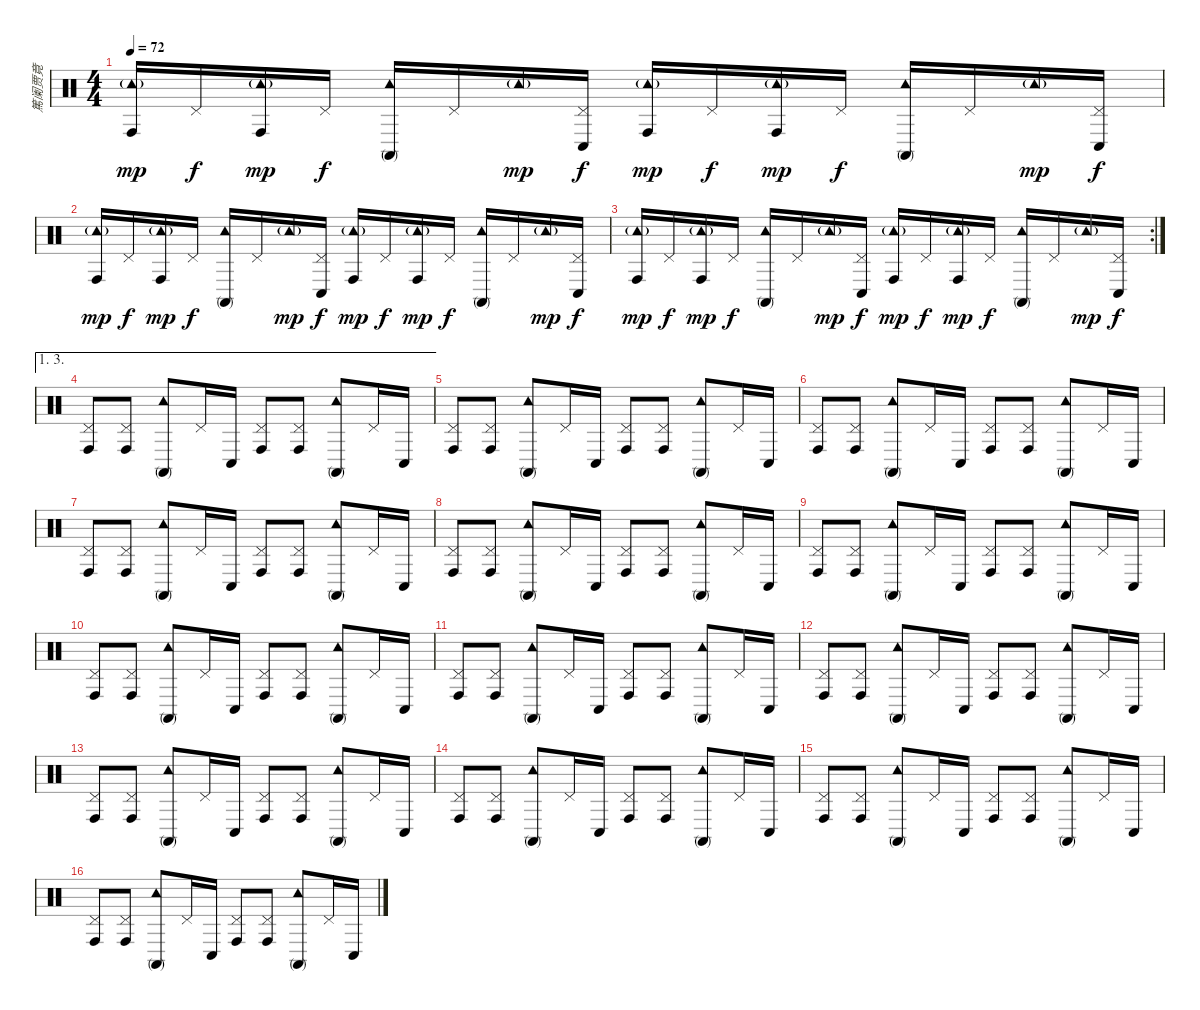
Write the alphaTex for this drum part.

\track ("篤阑贾竟" "篤阑贾竟") {instrument percussion}
\staff {score}
\articulation defaults
\ts (4 4)
\tempo 72
\clef neutral
\ks c
("Tambourine (hit)"{g} "Conga high (hit)").16{dy mp} "Pedal Hi-Hat (hit)".16{dy f} ("Tambourine (hit)"{g} "Conga high (hit)").16{dy mp} "Pedal Hi-Hat (hit)".16{dy f} ("Tambourine (hit)" "Conga high (mute)").16 "Pedal Hi-Hat (hit)".16 "Tambourine (hit)"{g}.16{dy mp} ("Pedal Hi-Hat (hit)" "Conga low (hit)").16{dy f} ("Tambourine (hit)"{g} "Conga high (hit)").16{dy mp} "Pedal Hi-Hat (hit)".16{dy f} ("Tambourine (hit)"{g} "Conga high (hit)").16{dy mp} "Pedal Hi-Hat (hit)".16{dy f} ("Tambourine (hit)" "Conga high (mute)").16 "Pedal Hi-Hat (hit)".16 "Tambourine (hit)"{g}.16{dy mp} ("Pedal Hi-Hat (hit)" "Conga low (hit)").16{dy f} |
("Tambourine (hit)"{g} "Conga high (hit)").16{dy mp} "Pedal Hi-Hat (hit)".16{dy f} ("Tambourine (hit)"{g} "Conga high (hit)").16{dy mp} "Pedal Hi-Hat (hit)".16{dy f} ("Tambourine (hit)" "Conga high (mute)").16 "Pedal Hi-Hat (hit)".16 "Tambourine (hit)"{g}.16{dy mp} ("Pedal Hi-Hat (hit)" "Conga low (hit)").16{dy f} ("Tambourine (hit)"{g} "Conga high (hit)").16{dy mp} "Pedal Hi-Hat (hit)".16{dy f} ("Tambourine (hit)"{g} "Conga high (hit)").16{dy mp} "Pedal Hi-Hat (hit)".16{dy f} ("Tambourine (hit)" "Conga high (mute)").16 "Pedal Hi-Hat (hit)".16 "Tambourine (hit)"{g}.16{dy mp} ("Pedal Hi-Hat (hit)" "Conga low (hit)").16{dy f} |
\rc 2
("Tambourine (hit)"{g} "Conga high (hit)").16{dy mp} "Pedal Hi-Hat (hit)".16{dy f} ("Tambourine (hit)"{g} "Conga high (hit)").16{dy mp} "Pedal Hi-Hat (hit)".16{dy f} ("Tambourine (hit)" "Conga high (mute)").16 "Pedal Hi-Hat (hit)".16 "Tambourine (hit)"{g}.16{dy mp} ("Pedal Hi-Hat (hit)" "Conga low (hit)").16{dy f} ("Tambourine (hit)"{g} "Conga high (hit)").16{dy mp} "Pedal Hi-Hat (hit)".16{dy f} ("Tambourine (hit)"{g} "Conga high (hit)").16{dy mp} "Pedal Hi-Hat (hit)".16{dy f} ("Tambourine (hit)" "Conga high (mute)").16 "Pedal Hi-Hat (hit)".16 "Tambourine (hit)"{g}.16{dy mp} ("Pedal Hi-Hat (hit)" "Conga low (hit)").16{dy f} |
\ae (1 3)
("Pedal Hi-Hat (hit)" "Conga high (hit)").8 ("Pedal Hi-Hat (hit)" "Conga high (hit)").8 ("Tambourine (hit)" "Conga high (mute)").8 "Pedal Hi-Hat (hit)".16 "Conga low (hit)".16 ("Pedal Hi-Hat (hit)" "Conga high (hit)").8 ("Pedal Hi-Hat (hit)" "Conga high (hit)").8 ("Tambourine (hit)" "Conga high (mute)").8 "Pedal Hi-Hat (hit)".16 "Conga low (hit)".16 |
("Pedal Hi-Hat (hit)" "Conga high (hit)").8 ("Pedal Hi-Hat (hit)" "Conga high (hit)").8 ("Tambourine (hit)" "Conga high (mute)").8 "Pedal Hi-Hat (hit)".16 "Conga low (hit)".16 ("Pedal Hi-Hat (hit)" "Conga high (hit)").8 ("Pedal Hi-Hat (hit)" "Conga high (hit)").8 ("Tambourine (hit)" "Conga high (mute)").8 "Pedal Hi-Hat (hit)".16 "Conga low (hit)".16 |
("Pedal Hi-Hat (hit)" "Conga high (hit)").8 ("Pedal Hi-Hat (hit)" "Conga high (hit)").8 ("Tambourine (hit)" "Conga high (mute)").8 "Pedal Hi-Hat (hit)".16 "Conga low (hit)".16 ("Pedal Hi-Hat (hit)" "Conga high (hit)").8 ("Pedal Hi-Hat (hit)" "Conga high (hit)").8 ("Tambourine (hit)" "Conga high (mute)").8 "Pedal Hi-Hat (hit)".16 "Conga low (hit)".16 |
("Pedal Hi-Hat (hit)" "Conga high (hit)").8 ("Pedal Hi-Hat (hit)" "Conga high (hit)").8 ("Tambourine (hit)" "Conga high (mute)").8 "Pedal Hi-Hat (hit)".16 "Conga low (hit)".16 ("Pedal Hi-Hat (hit)" "Conga high (hit)").8 ("Pedal Hi-Hat (hit)" "Conga high (hit)").8 ("Tambourine (hit)" "Conga high (mute)").8 "Pedal Hi-Hat (hit)".16 "Conga low (hit)".16 |
("Pedal Hi-Hat (hit)" "Conga high (hit)").8 ("Pedal Hi-Hat (hit)" "Conga high (hit)").8 ("Tambourine (hit)" "Conga high (mute)").8 "Pedal Hi-Hat (hit)".16 "Conga low (hit)".16 ("Pedal Hi-Hat (hit)" "Conga high (hit)").8 ("Pedal Hi-Hat (hit)" "Conga high (hit)").8 ("Tambourine (hit)" "Conga high (mute)").8 "Pedal Hi-Hat (hit)".16 "Conga low (hit)".16 |
("Pedal Hi-Hat (hit)" "Conga high (hit)").8 ("Pedal Hi-Hat (hit)" "Conga high (hit)").8 ("Tambourine (hit)" "Conga high (mute)").8 "Pedal Hi-Hat (hit)".16 "Conga low (hit)".16 ("Pedal Hi-Hat (hit)" "Conga high (hit)").8 ("Pedal Hi-Hat (hit)" "Conga high (hit)").8 ("Tambourine (hit)" "Conga high (mute)").8 "Pedal Hi-Hat (hit)".16 "Conga low (hit)".16 |
("Pedal Hi-Hat (hit)" "Conga high (hit)").8 ("Pedal Hi-Hat (hit)" "Conga high (hit)").8 ("Tambourine (hit)" "Conga high (mute)").8 "Pedal Hi-Hat (hit)".16 "Conga low (hit)".16 ("Pedal Hi-Hat (hit)" "Conga high (hit)").8 ("Pedal Hi-Hat (hit)" "Conga high (hit)").8 ("Tambourine (hit)" "Conga high (mute)").8 "Pedal Hi-Hat (hit)".16 "Conga low (hit)".16 |
("Pedal Hi-Hat (hit)" "Conga high (hit)").8 ("Pedal Hi-Hat (hit)" "Conga high (hit)").8 ("Tambourine (hit)" "Conga high (mute)").8 "Pedal Hi-Hat (hit)".16 "Conga low (hit)".16 ("Pedal Hi-Hat (hit)" "Conga high (hit)").8 ("Pedal Hi-Hat (hit)" "Conga high (hit)").8 ("Tambourine (hit)" "Conga high (mute)").8 "Pedal Hi-Hat (hit)".16 "Conga low (hit)".16 |
("Pedal Hi-Hat (hit)" "Conga high (hit)").8 ("Pedal Hi-Hat (hit)" "Conga high (hit)").8 ("Tambourine (hit)" "Conga high (mute)").8 "Pedal Hi-Hat (hit)".16 "Conga low (hit)".16 ("Pedal Hi-Hat (hit)" "Conga high (hit)").8 ("Pedal Hi-Hat (hit)" "Conga high (hit)").8 ("Tambourine (hit)" "Conga high (mute)").8 "Pedal Hi-Hat (hit)".16 "Conga low (hit)".16 |
("Pedal Hi-Hat (hit)" "Conga high (hit)").8 ("Pedal Hi-Hat (hit)" "Conga high (hit)").8 ("Tambourine (hit)" "Conga high (mute)").8 "Pedal Hi-Hat (hit)".16 "Conga low (hit)".16 ("Pedal Hi-Hat (hit)" "Conga high (hit)").8 ("Pedal Hi-Hat (hit)" "Conga high (hit)").8 ("Tambourine (hit)" "Conga high (mute)").8 "Pedal Hi-Hat (hit)".16 "Conga low (hit)".16 |
("Pedal Hi-Hat (hit)" "Conga high (hit)").8 ("Pedal Hi-Hat (hit)" "Conga high (hit)").8 ("Tambourine (hit)" "Conga high (mute)").8 "Pedal Hi-Hat (hit)".16 "Conga low (hit)".16 ("Pedal Hi-Hat (hit)" "Conga high (hit)").8 ("Pedal Hi-Hat (hit)" "Conga high (hit)").8 ("Tambourine (hit)" "Conga high (mute)").8 "Pedal Hi-Hat (hit)".16 "Conga low (hit)".16 |
("Pedal Hi-Hat (hit)" "Conga high (hit)").8 ("Pedal Hi-Hat (hit)" "Conga high (hit)").8 ("Tambourine (hit)" "Conga high (mute)").8 "Pedal Hi-Hat (hit)".16 "Conga low (hit)".16 ("Pedal Hi-Hat (hit)" "Conga high (hit)").8 ("Pedal Hi-Hat (hit)" "Conga high (hit)").8 ("Tambourine (hit)" "Conga high (mute)").8 "Pedal Hi-Hat (hit)".16 "Conga low (hit)".16 |
("Pedal Hi-Hat (hit)" "Conga high (hit)").8 ("Pedal Hi-Hat (hit)" "Conga high (hit)").8 ("Tambourine (hit)" "Conga high (mute)").8 "Pedal Hi-Hat (hit)".16 "Conga low (hit)".16 ("Pedal Hi-Hat (hit)" "Conga high (hit)").8 ("Pedal Hi-Hat (hit)" "Conga high (hit)").8 ("Tambourine (hit)" "Conga high (mute)").8 "Pedal Hi-Hat (hit)".16 "Conga low (hit)".16
